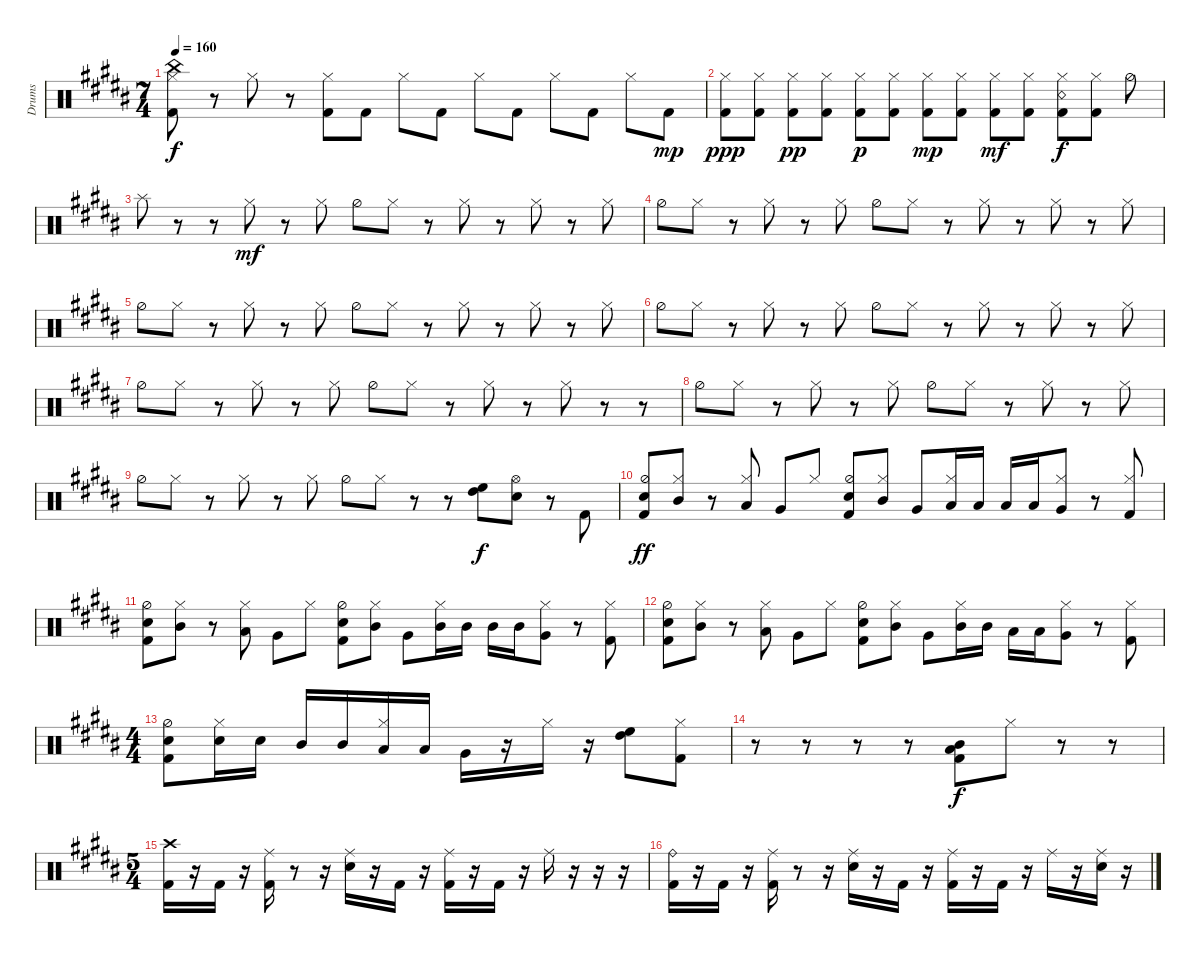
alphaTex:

\bracketExtendMode groupsimilarinstruments
\otherSystemsTrackNameOrientation horizontal
\track ("Drumkit" "Drums") {instrument percussion}
\staff {score}
\articulation defaults
\ts (7 4)
\tempo 160
\clef neutral
\ks b
("Hi-Hat (closed)"{acc forcenatural} "Kick (hit) 2"{acc forcenatural} "China (hit)"{acc forcenatural}).8{dy f beam Down} r.8{beam Down} "Hi-Hat (closed)"{acc forcenatural}.8{beam Down} r.8{beam Down} ("Hi-Hat (closed)"{acc forcenatural} "Kick (hit) 2"{acc forcenatural}).8{beam Down} "Kick (hit) 2"{acc forcenatural}.8{beam Down} "Hi-Hat (closed)"{acc forcenatural}.8{beam Down} "Kick (hit) 2"{acc forcenatural}.8{beam Down} "Hi-Hat (closed)"{acc forcenatural}.8{beam Down} "Kick (hit) 2"{acc forcenatural}.8{beam Down} "Hi-Hat (closed)"{acc forcenatural}.8{beam Down} "Kick (hit) 2"{acc forcenatural}.8{beam Down} "Hi-Hat (closed)"{acc forcenatural}.8{beam Down} "Kick (hit) 2"{acc forcenatural}.8{dy mp beam Down} |
("Hi-Hat (closed)"{acc forcenatural} "Kick (hit) 2"{acc forcenatural}).8{dy ppp beam Down} ("Kick (hit) 2"{acc forcenatural} "Hi-Hat (closed)"{acc forcenatural}).8{beam Down} ("Kick (hit) 2"{acc forcenatural} "Hi-Hat (closed)"{acc forcenatural}).8{dy pp beam Down} ("Kick (hit) 2"{acc forcenatural} "Hi-Hat (closed)"{acc forcenatural}).8{beam Down} ("Kick (hit) 2"{acc forcenatural} "Hi-Hat (closed)"{acc forcenatural}).8{dy p beam Down} ("Kick (hit) 2"{acc forcenatural} "Hi-Hat (closed)"{acc forcenatural}).8{beam Down} ("Kick (hit) 2"{acc forcenatural} "Hi-Hat (closed)"{acc forcenatural}).8{dy mp beam Down} ("Kick (hit) 2"{acc forcenatural} "Hi-Hat (closed)"{acc forcenatural}).8{beam Down} ("Kick (hit) 2"{acc forcenatural} "Hi-Hat (closed)"{acc forcenatural}).8{dy mf beam Down} ("Kick (hit) 2"{acc forcenatural} "Hi-Hat (closed)"{acc forcenatural}).8{beam Down} ("Kick (hit) 2"{acc forcenatural} "Hi-Hat (closed)"{acc forcenatural} "Snare (rim shot)"{acc forcenatural}).8{dy f beam Down} ("Kick (hit) 2"{acc forcenatural} "Hi-Hat (closed)"{acc forcenatural}).8{beam Down} "Hi-Hat (half)"{acc forcenatural}.8{beam Down} |
"Splash (hit)"{acc forcenatural}.8{beam Down} r.8{beam Down} r.8{beam Down} "Hi-Hat (closed)"{acc forcenatural}.8{dy mf beam Down} r.8{beam Down} "Hi-Hat (closed)"{acc forcenatural}.8{beam Down} "Hi-Hat (half)"{acc forcenatural}.8{beam Down} "Hi-Hat (closed)"{acc forcenatural}.8{beam Down} r.8{beam Down} "Hi-Hat (closed)"{acc forcenatural}.8{beam Down} r.8{beam Down} "Hi-Hat (closed)"{acc forcenatural}.8{beam Down} r.8{beam Down} "Hi-Hat (closed)"{acc forcenatural}.8{beam Down} |
"Hi-Hat (half)"{acc forcenatural}.8{beam Down} "Hi-Hat (closed)"{acc forcenatural}.8{beam Down} r.8{beam Down} "Hi-Hat (closed)"{acc forcenatural}.8{beam Down} r.8{beam Down} "Hi-Hat (closed)"{acc forcenatural}.8{beam Down} "Hi-Hat (half)"{acc forcenatural}.8{beam Down} "Hi-Hat (closed)"{acc forcenatural}.8{beam Down} r.8{beam Down} "Hi-Hat (closed)"{acc forcenatural}.8{beam Down} r.8{beam Down} "Hi-Hat (closed)"{acc forcenatural}.8{beam Down} r.8{beam Down} "Hi-Hat (closed)"{acc forcenatural}.8{beam Down} |
"Hi-Hat (half)"{acc forcenatural}.8{beam Down} "Hi-Hat (closed)"{acc forcenatural}.8{beam Down} r.8{beam Down} "Hi-Hat (closed)"{acc forcenatural}.8{beam Down} r.8{beam Down} "Hi-Hat (closed)"{acc forcenatural}.8{beam Down} "Hi-Hat (half)"{acc forcenatural}.8{beam Down} "Hi-Hat (closed)"{acc forcenatural}.8{beam Down} r.8{beam Down} "Hi-Hat (closed)"{acc forcenatural}.8{beam Down} r.8{beam Down} "Hi-Hat (closed)"{acc forcenatural}.8{beam Down} r.8{beam Down} "Hi-Hat (closed)"{acc forcenatural}.8{beam Down} |
"Hi-Hat (half)"{acc forcenatural}.8{beam Down} "Hi-Hat (closed)"{acc forcenatural}.8{beam Down} r.8{beam Down} "Hi-Hat (closed)"{acc forcenatural}.8{beam Down} r.8{beam Down} "Hi-Hat (closed)"{acc forcenatural}.8{beam Down} "Hi-Hat (half)"{acc forcenatural}.8{beam Down} "Hi-Hat (closed)"{acc forcenatural}.8{beam Down} r.8{beam Down} "Hi-Hat (closed)"{acc forcenatural}.8{beam Down} r.8{beam Down} "Hi-Hat (closed)"{acc forcenatural}.8{beam Down} r.8{beam Down} "Hi-Hat (closed)"{acc forcenatural}.8{beam Down} |
"Hi-Hat (half)"{acc forcenatural}.8{beam Down} "Hi-Hat (closed)"{acc forcenatural}.8{beam Down} r.8{beam Down} "Hi-Hat (closed)"{acc forcenatural}.8{beam Down} r.8{beam Down} "Hi-Hat (closed)"{acc forcenatural}.8{beam Down} "Hi-Hat (half)"{acc forcenatural}.8{beam Down} "Hi-Hat (closed)"{acc forcenatural}.8{beam Down} r.8{beam Down} "Hi-Hat (closed)"{acc forcenatural}.8{beam Down} r.8{beam Down} "Hi-Hat (closed)"{acc forcenatural}.8{beam Down} r.8{beam Down} r.8{beam Down} |
"Hi-Hat (half)"{acc forcenatural}.8{beam Down} "Hi-Hat (closed)"{acc forcenatural}.8{beam Down} r.8{beam Down} "Hi-Hat (closed)"{acc forcenatural}.8{beam Down} r.8{beam Down} "Hi-Hat (closed)"{acc forcenatural}.8{beam Down} "Hi-Hat (half)"{acc forcenatural}.8{beam Down} "Hi-Hat (closed)"{acc forcenatural}.8{beam Down} r.8{beam Down} "Hi-Hat (closed)"{acc forcenatural}.8{beam Down} r.8{beam Down} "Hi-Hat (closed)"{acc forcenatural}.8{beam Down} |
"Hi-Hat (half)"{acc forcenatural}.8{beam Down} "Hi-Hat (closed)"{acc forcenatural}.8{beam Down} r.8{beam Down} "Hi-Hat (closed)"{acc forcenatural}.8{beam Down} r.8{beam Down} "Hi-Hat (closed)"{acc forcenatural}.8{beam Down} "Hi-Hat (half)"{acc forcenatural}.8{beam Down} "Hi-Hat (closed)"{acc forcenatural}.8{beam Down} r.8{beam Down} r.8{beam Down} ("High Tom (hit)"{acc forcenatural} "High Floor Tom (hit)"{acc forcenatural}).8{dy f beam Down} ("Hi-Hat (open)"{acc forcenatural} "Snare (hit) 2"{acc forcenatural}).8{beam Down} r.8{beam Down} "Kick (hit) 2"{acc forcenatural}.8{beam Down} |
("Kick (hit) 2"{acc forcenatural} "Snare (hit) 2"{acc forcenatural} "Hi-Hat (half)"{acc forcenatural}).8{dy ff beam Up} ("Mid Tom (hit)"{acc forcenatural} "Hi-Hat (closed)"{acc forcenatural}).8{beam Up} r.8{beam Up} ("Low Tom (hit)"{acc forcenatural} "Hi-Hat (closed)"{acc forcenatural}).8{beam Up} "Very Low Tom (hit)"{acc forcenatural}.8{beam Up} "Hi-Hat (closed)"{acc forcenatural}.8{beam Up} ("Snare (hit) 2"{acc forcenatural} "Kick (hit) 2"{acc forcenatural} "Hi-Hat (half)"{acc forcenatural}).8{beam Up} ("Mid Tom (hit)"{acc forcenatural} "Hi-Hat (closed)"{acc forcenatural}).8{beam Up} "Very Low Tom (hit)"{acc forcenatural}.8{beam Up} ("Low Tom (hit)"{acc forcenatural} "Hi-Hat (closed)"{acc forcenatural}).16{beam Up} "Low Tom (hit)"{acc forcenatural}.16{beam Up} "Low Tom (hit)"{acc forcenatural}.16{beam Up} "Low Tom (hit)"{acc forcenatural}.16{beam Up} ("Very Low Tom (hit)"{acc forcenatural} "Hi-Hat (closed)"{acc forcenatural}).8{beam Up} r.8{beam Up} ("Kick (hit) 2"{acc forcenatural} "Hi-Hat (closed)"{acc forcenatural}).8{beam Up} |
("Kick (hit) 2"{acc forcenatural} "Snare (hit) 2"{acc forcenatural} "Hi-Hat (half)"{acc forcenatural}).8{beam Down} ("Mid Tom (hit)"{acc forcenatural} "Hi-Hat (closed)"{acc forcenatural}).8{beam Down} r.8{beam Down} ("Low Tom (hit)"{acc forcenatural} "Hi-Hat (closed)"{acc forcenatural}).8{beam Down} "Very Low Tom (hit)"{acc forcenatural}.8{beam Down} "Hi-Hat (closed)"{acc forcenatural}.8{beam Down} ("Snare (hit) 2"{acc forcenatural} "Kick (hit) 2"{acc forcenatural} "Hi-Hat (half)"{acc forcenatural}).8{beam Down} ("Mid Tom (hit)"{acc forcenatural} "Hi-Hat (closed)"{acc forcenatural}).8{beam Down} "Very Low Tom (hit)"{acc forcenatural}.8{beam Down} ("Hi-Hat (closed)"{acc forcenatural} "Mid Tom (hit)"{acc forcenatural}).16{beam Down} "Mid Tom (hit)"{acc forcenatural}.16{beam Down} "Mid Tom (hit)"{acc forcenatural}.16{beam Down} "Mid Tom (hit)"{acc forcenatural}.16{beam Down} ("Hi-Hat (closed)"{acc forcenatural} "Very Low Tom (hit)"{acc forcenatural}).8{beam Down} r.8{beam Down} ("Kick (hit) 2"{acc forcenatural} "Hi-Hat (closed)"{acc forcenatural}).8{beam Down} |
("Kick (hit) 2"{acc forcenatural} "Snare (hit) 2"{acc forcenatural} "Hi-Hat (half)"{acc forcenatural}).8{beam Down} ("Mid Tom (hit)"{acc forcenatural} "Hi-Hat (closed)"{acc forcenatural}).8{beam Down} r.8{beam Down} ("Low Tom (hit)"{acc forcenatural} "Hi-Hat (closed)"{acc forcenatural}).8{beam Down} "Very Low Tom (hit)"{acc forcenatural}.8{beam Down} "Hi-Hat (closed)"{acc forcenatural}.8{beam Down} ("Snare (hit) 2"{acc forcenatural} "Kick (hit) 2"{acc forcenatural} "Hi-Hat (half)"{acc forcenatural}).8{beam Down} ("Hi-Hat (closed)"{acc forcenatural} "Mid Tom (hit)"{acc forcenatural}).8{beam Down} "Very Low Tom (hit)"{acc forcenatural}.8{beam Down} ("Hi-Hat (closed)"{acc forcenatural} "Mid Tom (hit)"{acc forcenatural}).16{beam Down} "Mid Tom (hit)"{acc forcenatural}.16{beam Down} "Low Tom (hit)"{acc forcenatural}.16{beam Down} "Low Tom (hit)"{acc forcenatural}.16{beam Down} ("Hi-Hat (closed)"{acc forcenatural} "Very Low Tom (hit)"{acc forcenatural}).8{beam Down} r.8{beam Down} ("Kick (hit) 2"{acc forcenatural} "Hi-Hat (closed)"{acc forcenatural}).8{beam Down} |
\ts (4 4)
\beaming (8 2 2 2 2)
("Kick (hit) 2"{acc forcenatural} "Snare (hit) 2"{acc forcenatural} "Hi-Hat (half)"{acc forcenatural}).8{beam Down} ("Hi-Hat (closed)"{acc forcenatural} "Snare (hit) 2"{acc forcenatural}).16{beam Down} "Snare (hit) 2"{acc forcenatural}.16{beam Down} "Mid Tom (hit)"{acc forcenatural}.16{beam Up} "Mid Tom (hit)"{acc forcenatural}.16{beam Up} ("Hi-Hat (closed)"{acc forcenatural} "Low Tom (hit)"{acc forcenatural}).16{beam Up} "Low Tom (hit)"{acc forcenatural}.16{beam Up} "Very Low Tom (hit)"{acc forcenatural}.16{beam Down} r.16{beam Down} "Hi-Hat (closed)"{acc forcenatural}.16{beam Down} r.16{beam Down} ("High Floor Tom (hit)"{acc forcenatural} "High Tom (hit)"{acc forcenatural}).8{beam Down} ("Hi-Hat (closed)"{acc forcenatural} "Kick (hit) 2"{acc forcenatural}).8{beam Down} |
r.8{beam Down} r.8{beam Down} r.8{beam Down} r.8{beam Down} ("Mid Tom (hit)"{acc forcenatural} "Kick (hit) 2"{acc forcenatural} "Low Tom (hit)"{acc forcenatural}).8{dy f beam Down} "Hi-Hat (closed)"{acc forcenatural}.8{beam Down} r.8{beam Down} r.8{beam Down} |
\ts (5 4)
("Kick (hit) 2"{acc bb} "Crash high (hit)"{acc bb}).16{beam Down} r.16{beam Down} "Kick (hit) 2"{acc bb}.16{beam Down} r.16{beam Down} ("Kick (hit) 2"{acc bb} "Ride (middle)"{acc bb}).16{beam Down} r.8{beam Down} r.16{beam Down} ("Ride (middle)"{acc bb} "Snare (hit) 2"{acc bb}).16{beam Down} r.16{beam Down} "Kick (hit) 2"{acc bb}.16{beam Down} r.16{beam Down} ("Kick (hit) 2"{acc bb} "Ride (middle)"{acc bb}).16{beam Down} r.16{beam Down} "Kick (hit) 2"{acc bb}.16{beam Down} r.16{beam Down} "Ride (middle)"{acc bb}.16{beam Down} r.16{beam Down} r.16{beam Down} r.16{beam Down} |
("Kick (hit) 2"{acc bb} "Ride (bell)"{acc bb}).16{beam Down} r.16{beam Down} "Kick (hit) 2"{acc bb}.16{beam Down} r.16{beam Down} ("Kick (hit) 2"{acc bb} "Ride (middle)"{acc bb}).16{beam Down} r.8{beam Down} r.16{beam Down} ("Ride (middle)"{acc bb} "Snare (hit) 2"{acc bb}).16{beam Down} r.16{beam Down} "Kick (hit) 2"{acc bb}.16{beam Down} r.16{beam Down} ("Kick (hit) 2"{acc bb} "Ride (middle)"{acc bb}).16{beam Down} r.16{beam Down} "Kick (hit) 2"{acc bb}.16{beam Down} r.16{beam Down} "Ride (middle)"{acc bb}.16{beam Down} r.16{beam Down} ("Snare (hit) 2"{acc bb} "Ride (middle)"{acc bb}).16{beam Down} r.16{beam Down}
